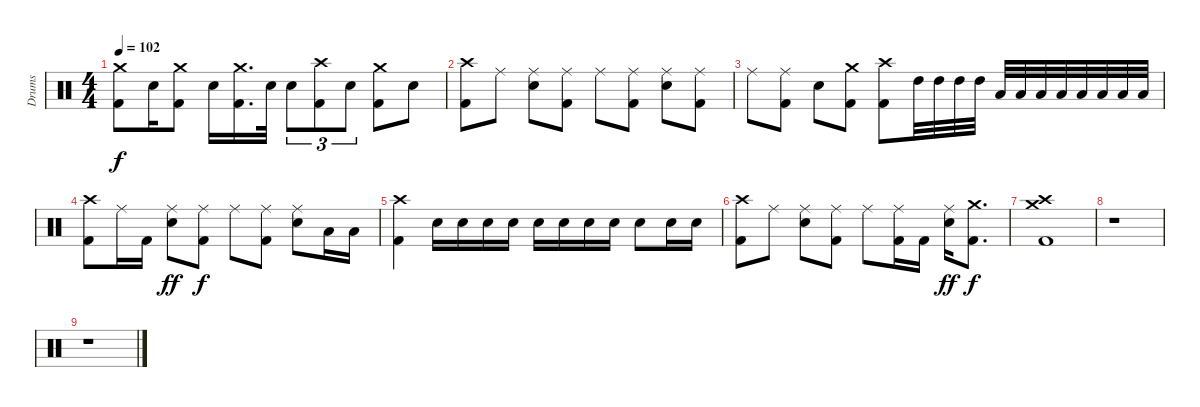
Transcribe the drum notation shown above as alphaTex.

\track ("Drums" "Drums") {instrument percussion}
\staff {score}
\articulation defaults
\ts (4 4)
\tempo 102
\clef neutral
\ks c
("Crash medium (hit)" "Kick (hit) 2").8{dy f} "Snare (hit) 2".16 ("Crash medium (hit)" "Kick (hit) 2").8 "Snare (hit) 2".16 ("Crash medium (hit)" "Kick (hit) 2").16{d} "Snare (hit) 2".32 "Snare (hit) 2".8{tu (3 2)} ("Crash high (hit)" "Kick (hit) 2").8{tu (3 2)} "Snare (hit) 2".8{tu (3 2)} ("Crash medium (hit)" "Kick (hit) 2").8 "Snare (hit) 2".8 |
("Crash high (hit)" "Kick (hit) 2").8 "Ride (middle)".8 ("Ride (middle)" "Snare (hit) 2").8 ("Ride (middle)" "Kick (hit) 2").8 "Ride (middle)".8 ("Ride (middle)" "Kick (hit) 2").8 ("Ride (middle)" "Snare (hit) 2").8 ("Ride (middle)" "Kick (hit) 2").8 |
"Ride (middle)".8 ("Ride (middle)" "Kick (hit) 2").8 "Snare (hit) 2".8 ("Crash medium (hit)" "Kick (hit) 2").8 ("Crash high (hit)" "Kick (hit) 2").8 "High Tom (hit)".32 "High Tom (hit)".32 "High Tom (hit)".32 "High Tom (hit)".32 "Low Tom (hit)".32 "Low Tom (hit)".32 "Low Tom (hit)".32 "Low Tom (hit)".32 "Low Floor Tom (hit)".32 "Low Floor Tom (hit)".32 "Low Floor Tom (hit)".32 "Low Floor Tom (hit)".32 |
("Crash high (hit)" "Kick (hit) 2").8 "Ride (middle)".16 "Kick (hit) 2".16 ("Ride (middle)" "Snare (hit) 2").8{dy ff} ("Ride (middle)" "Kick (hit) 2").8{dy f} "Ride (middle)".8 ("Ride (middle)" "Kick (hit) 2").8 ("Ride (middle)" "Snare (hit) 2").8 "Low Tom (hit)".16 "Low Tom (hit)".16 |
("Crash high (hit)" "Kick (hit) 2").4 "Snare (hit) 2".16 "Snare (hit) 2".16 "Snare (hit) 2".16 "Snare (hit) 2".16 "Snare (hit) 2".16 "Snare (hit) 2".16 "Snare (hit) 2".16 "Snare (hit) 2".16 "Snare (hit) 2".8 "Snare (hit) 2".16 "Snare (hit) 2".16 |
("Crash high (hit)" "Kick (hit) 2").8 "Ride (middle)".8 ("Ride (middle)" "Snare (hit) 2").8 ("Ride (middle)" "Kick (hit) 2").8 "Ride (middle)".8 ("Ride (middle)" "Kick (hit) 2").16 "Kick (hit) 2".16 ("Ride (middle)" "Snare (hit) 2").16{dy ff} ("Crash medium (hit)" "Kick (hit) 2").8{d dy f} |
("Crash medium (hit)" "Crash high (hit)" "Kick (hit) 2").1 |
r.1 |
r.1
